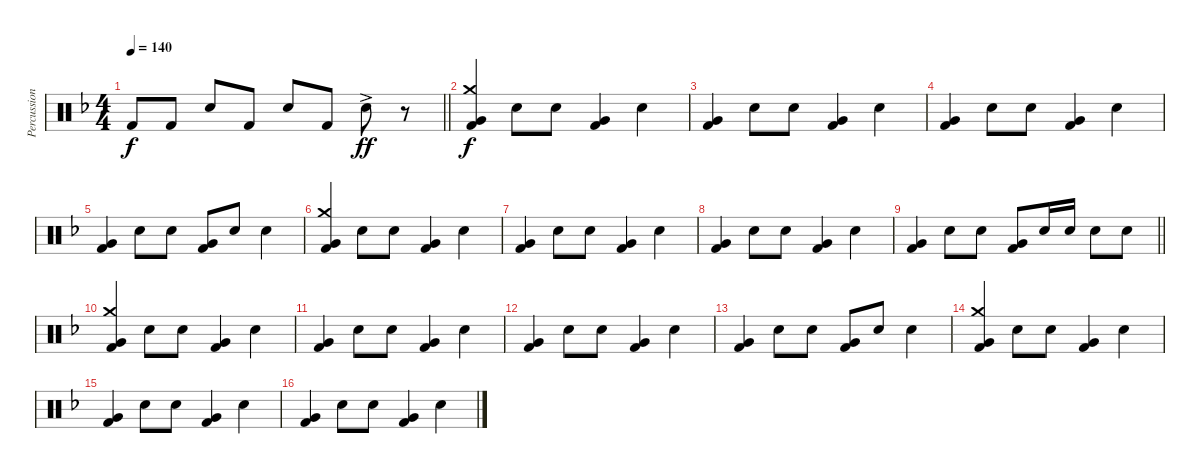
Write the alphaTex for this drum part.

\track ("Percussion" "Percussion") {instrument percussion}
\staff {score}
\articulation defaults
\ts (4 4)
\tempo 140
\clef neutral
\barLineRight lightlight
\ks dminor "Kick (hit) 2".8{dy f} "Kick (hit) 2".8 "Snare (hit) 2".8 "Kick (hit) 2".8 "Snare (hit) 2".8 "Kick (hit) 2".8 "Snare (hit) 2"{ac}.8{dy ff}
r.8 |
("Crash medium (hit)" "Very Low Tom (hit)" "Kick (hit) 2").4{dy f} "Snare (hit) 2".8 "Snare (hit) 2".8 ("Very Low Tom (hit)" "Kick (hit) 2").4 "Snare (hit) 2".4 |
("Very Low Tom (hit)" "Kick (hit) 2").4 "Snare (hit) 2".8 "Snare (hit) 2".8 ("Very Low Tom (hit)" "Kick (hit) 2").4 "Snare (hit) 2".4 |
("Very Low Tom (hit)" "Kick (hit) 2").4 "Snare (hit) 2".8 "Snare (hit) 2".8 ("Very Low Tom (hit)" "Kick (hit) 2").4 "Snare (hit) 2".4 |
("Very Low Tom (hit)" "Kick (hit) 2").4 "Snare (hit) 2".8 "Snare (hit) 2".8 ("Very Low Tom (hit)" "Kick (hit) 2").8 "Snare (hit) 2".8 "Snare (hit) 2".4 |
("Crash medium (hit)" "Very Low Tom (hit)" "Kick (hit) 2").4 "Snare (hit) 2".8 "Snare (hit) 2".8 ("Very Low Tom (hit)" "Kick (hit) 2").4 "Snare (hit) 2".4 |
("Very Low Tom (hit)" "Kick (hit) 2").4 "Snare (hit) 2".8 "Snare (hit) 2".8 ("Very Low Tom (hit)" "Kick (hit) 2").4 "Snare (hit) 2".4 |
("Very Low Tom (hit)" "Kick (hit) 2").4 "Snare (hit) 2".8 "Snare (hit) 2".8 ("Very Low Tom (hit)" "Kick (hit) 2").4 "Snare (hit) 2".4 |
\barLineRight lightlight
("Very Low Tom (hit)" "Kick (hit) 2").4 "Snare (hit) 2".8 "Snare (hit) 2".8 ("Very Low Tom (hit)" "Kick (hit) 2").8 "Snare (hit) 2".16 "Snare (hit) 2".16 "Snare (hit) 2".8 "Snare (hit) 2".8 |
("Crash medium (hit)" "Very Low Tom (hit)" "Kick (hit) 2").4 "Snare (hit) 2".8 "Snare (hit) 2".8 ("Very Low Tom (hit)" "Kick (hit) 2").4 "Snare (hit) 2".4 |
("Very Low Tom (hit)" "Kick (hit) 2").4 "Snare (hit) 2".8 "Snare (hit) 2".8 ("Very Low Tom (hit)" "Kick (hit) 2").4 "Snare (hit) 2".4 |
("Very Low Tom (hit)" "Kick (hit) 2").4 "Snare (hit) 2".8 "Snare (hit) 2".8 ("Very Low Tom (hit)" "Kick (hit) 2").4 "Snare (hit) 2".4 |
("Very Low Tom (hit)" "Kick (hit) 2").4 "Snare (hit) 2".8 "Snare (hit) 2".8 ("Very Low Tom (hit)" "Kick (hit) 2").8 "Snare (hit) 2".8 "Snare (hit) 2".4 |
("Crash medium (hit)" "Very Low Tom (hit)" "Kick (hit) 2").4 "Snare (hit) 2".8 "Snare (hit) 2".8 ("Very Low Tom (hit)" "Kick (hit) 2").4 "Snare (hit) 2".4 |
("Very Low Tom (hit)" "Kick (hit) 2").4 "Snare (hit) 2".8 "Snare (hit) 2".8 ("Very Low Tom (hit)" "Kick (hit) 2").4 "Snare (hit) 2".4 |
("Very Low Tom (hit)" "Kick (hit) 2").4 "Snare (hit) 2".8 "Snare (hit) 2".8 ("Very Low Tom (hit)" "Kick (hit) 2").4 "Snare (hit) 2".4
